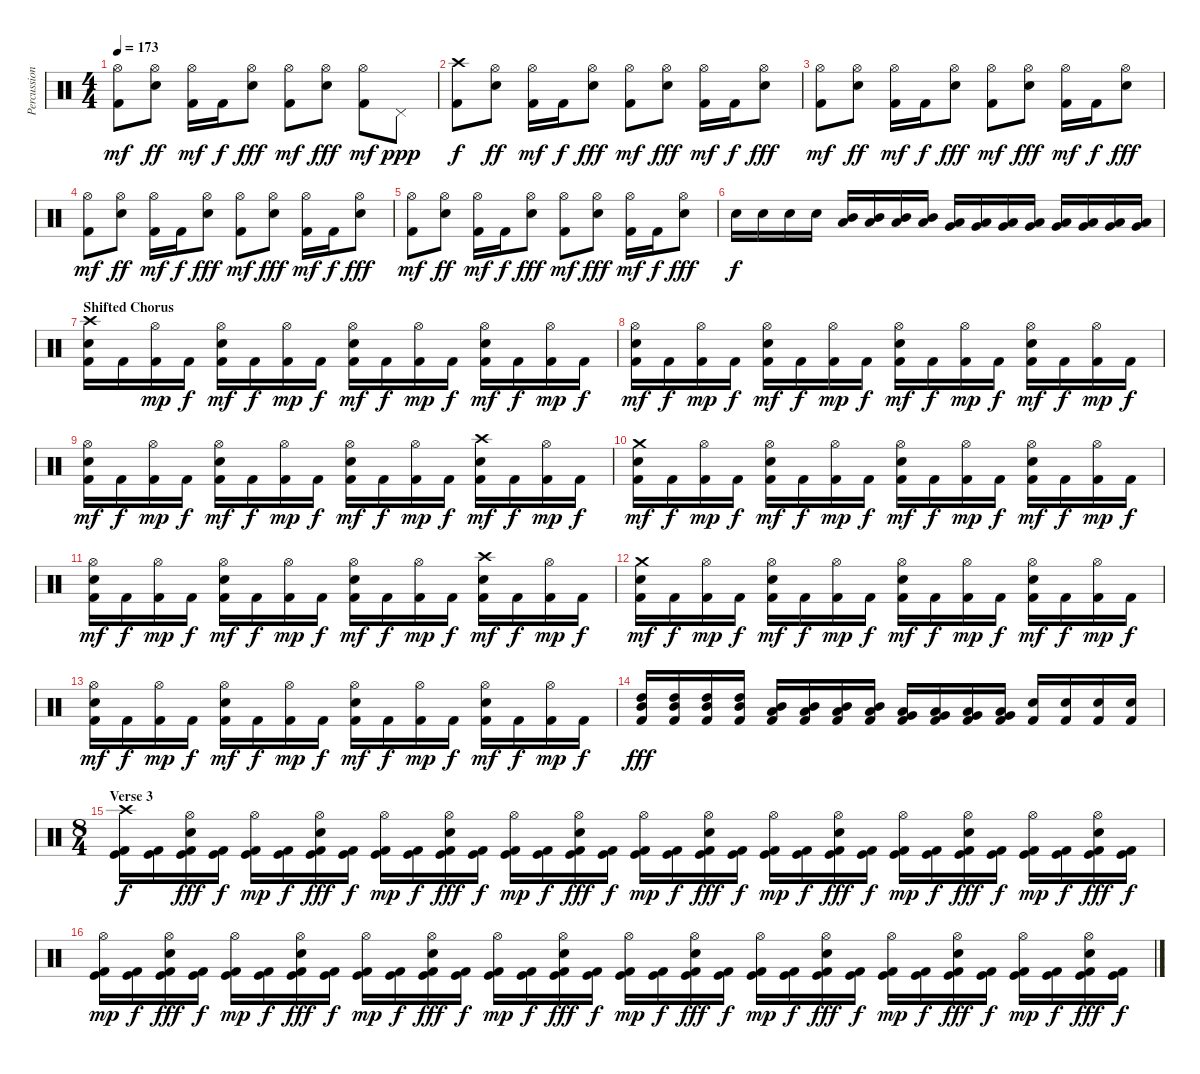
\track ("Percussion" "Percussion") {instrument percussion}
\staff {score}
\articulation defaults
\ts (4 4)
\tempo 173
\clef neutral
\ks c
("Hi-Hat (open)" "Kick (hit) 2").8{dy mf} ("Hi-Hat (open)" "Snare (hit) 2").8{dy ff} ("Hi-Hat (open)" "Kick (hit) 2").16{dy mf} "Kick (hit) 2".16{dy f} ("Hi-Hat (open)" "Snare (hit) 2").8{dy fff} ("Hi-Hat (open)" "Kick (hit) 2").8{dy mf} ("Hi-Hat (open)" "Snare (hit) 2").8{dy fff} ("Hi-Hat (open)" "Kick (hit) 2").8{dy mf} "Pedal Hi-Hat (hit)".8{dy ppp} |
("Crash high (hit)" "Kick (hit) 2").8{dy f} ("Hi-Hat (open)" "Snare (hit) 2").8{dy ff} ("Hi-Hat (open)" "Kick (hit) 2").16{dy mf} "Kick (hit) 2".16{dy f} ("Hi-Hat (open)" "Snare (hit) 2").8{dy fff} ("Hi-Hat (open)" "Kick (hit) 2").8{dy mf} ("Hi-Hat (open)" "Snare (hit) 2").8{dy fff} ("Hi-Hat (open)" "Kick (hit) 2").16{dy mf} "Kick (hit) 2".16{dy f} ("Hi-Hat (open)" "Snare (hit) 2").8{dy fff} |
("Hi-Hat (open)" "Kick (hit) 2").8{dy mf} ("Hi-Hat (open)" "Snare (hit) 2").8{dy ff} ("Hi-Hat (open)" "Kick (hit) 2").16{dy mf} "Kick (hit) 2".16{dy f} ("Hi-Hat (open)" "Snare (hit) 2").8{dy fff} ("Hi-Hat (open)" "Kick (hit) 2").8{dy mf} ("Hi-Hat (open)" "Snare (hit) 2").8{dy fff} ("Hi-Hat (open)" "Kick (hit) 2").16{dy mf} "Kick (hit) 2".16{dy f} ("Hi-Hat (open)" "Snare (hit) 2").8{dy fff} |
("Hi-Hat (open)" "Kick (hit) 2").8{dy mf} ("Hi-Hat (open)" "Snare (hit) 2").8{dy ff} ("Hi-Hat (open)" "Kick (hit) 2").16{dy mf} "Kick (hit) 2".16{dy f} ("Hi-Hat (open)" "Snare (hit) 2").8{dy fff} ("Hi-Hat (open)" "Kick (hit) 2").8{dy mf} ("Hi-Hat (open)" "Snare (hit) 2").8{dy fff} ("Hi-Hat (open)" "Kick (hit) 2").16{dy mf} "Kick (hit) 2".16{dy f} ("Hi-Hat (open)" "Snare (hit) 2").8{dy fff} |
("Hi-Hat (open)" "Kick (hit) 2").8{dy mf} ("Hi-Hat (open)" "Snare (hit) 2").8{dy ff} ("Hi-Hat (open)" "Kick (hit) 2").16{dy mf} "Kick (hit) 2".16{dy f} ("Hi-Hat (open)" "Snare (hit) 2").8{dy fff} ("Hi-Hat (open)" "Kick (hit) 2").8{dy mf} ("Hi-Hat (open)" "Snare (hit) 2").8{dy fff} ("Hi-Hat (open)" "Kick (hit) 2").16{dy mf} "Kick (hit) 2".16{dy f} ("Hi-Hat (open)" "Snare (hit) 2").8{dy fff} |
"Snare (hit) 2".16{dy f} "Snare (hit) 2".16 "Snare (hit) 2".16 "Snare (hit) 2".16 ("Low Tom (hit)" "Mid Tom (hit)").16 ("Low Tom (hit)" "Mid Tom (hit)").16 ("Low Tom (hit)" "Mid Tom (hit)").16 ("Low Tom (hit)" "Mid Tom (hit)").16 ("Very Low Tom (hit)" "Low Tom (hit)").16 ("Very Low Tom (hit)" "Low Tom (hit)").16 ("Very Low Tom (hit)" "Low Tom (hit)").16 ("Very Low Tom (hit)" "Low Tom (hit)").16 ("Low Floor Tom (hit)" "Very Low Tom (hit)").16 ("Low Floor Tom (hit)" "Very Low Tom (hit)").16 ("Low Floor Tom (hit)" "Very Low Tom (hit)").16 ("Low Floor Tom (hit)" "Very Low Tom (hit)").16 |
\section ("" "Shifted Chorus")
("Crash high (hit)" "Snare (hit) 2" "Kick (hit) 2").16 "Kick (hit) 2".16 ("Hi-Hat (open)" "Kick (hit) 2").16{dy mp} "Kick (hit) 2".16{dy f} ("Hi-Hat (open)" "Snare (hit) 2" "Kick (hit) 2").16{dy mf} "Kick (hit) 2".16{dy f} ("Hi-Hat (open)" "Kick (hit) 2").16{dy mp} "Kick (hit) 2".16{dy f} ("Hi-Hat (open)" "Snare (hit) 2" "Kick (hit) 2").16{dy mf} "Kick (hit) 2".16{dy f} ("Hi-Hat (open)" "Kick (hit) 2").16{dy mp} "Kick (hit) 2".16{dy f} ("Hi-Hat (open)" "Snare (hit) 2" "Kick (hit) 2").16{dy mf} "Kick (hit) 2".16{dy f} ("Hi-Hat (open)" "Kick (hit) 2").16{dy mp} "Kick (hit) 2".16{dy f} |
("Hi-Hat (open)" "Snare (hit) 2" "Kick (hit) 2").16{dy mf} "Kick (hit) 2".16{dy f} ("Hi-Hat (open)" "Kick (hit) 2").16{dy mp} "Kick (hit) 2".16{dy f} ("Hi-Hat (open)" "Snare (hit) 2" "Kick (hit) 2").16{dy mf} "Kick (hit) 2".16{dy f} ("Hi-Hat (open)" "Kick (hit) 2").16{dy mp} "Kick (hit) 2".16{dy f} ("Hi-Hat (open)" "Snare (hit) 2" "Kick (hit) 2").16{dy mf} "Kick (hit) 2".16{dy f} ("Hi-Hat (open)" "Kick (hit) 2").16{dy mp} "Kick (hit) 2".16{dy f} ("Hi-Hat (open)" "Snare (hit) 2" "Kick (hit) 2").16{dy mf} "Kick (hit) 2".16{dy f} ("Hi-Hat (open)" "Kick (hit) 2").16{dy mp} "Kick (hit) 2".16{dy f} |
("Hi-Hat (open)" "Snare (hit) 2" "Kick (hit) 2").16{dy mf} "Kick (hit) 2".16{dy f} ("Hi-Hat (open)" "Kick (hit) 2").16{dy mp} "Kick (hit) 2".16{dy f} ("Hi-Hat (open)" "Snare (hit) 2" "Kick (hit) 2").16{dy mf} "Kick (hit) 2".16{dy f} ("Hi-Hat (open)" "Kick (hit) 2").16{dy mp} "Kick (hit) 2".16{dy f} ("Hi-Hat (open)" "Snare (hit) 2" "Kick (hit) 2").16{dy mf} "Kick (hit) 2".16{dy f} ("Hi-Hat (open)" "Kick (hit) 2").16{dy mp} "Kick (hit) 2".16{dy f} ("Crash high (hit)" "Snare (hit) 2" "Kick (hit) 2").16{dy mf} "Kick (hit) 2".16{dy f} ("Hi-Hat (open)" "Kick (hit) 2").16{dy mp} "Kick (hit) 2".16{dy f} |
("Crash medium (hit)" "Snare (hit) 2" "Kick (hit) 2").16{dy mf} "Kick (hit) 2".16{dy f} ("Hi-Hat (open)" "Kick (hit) 2").16{dy mp} "Kick (hit) 2".16{dy f} ("Hi-Hat (open)" "Snare (hit) 2" "Kick (hit) 2").16{dy mf} "Kick (hit) 2".16{dy f} ("Hi-Hat (open)" "Kick (hit) 2").16{dy mp} "Kick (hit) 2".16{dy f} ("Hi-Hat (open)" "Snare (hit) 2" "Kick (hit) 2").16{dy mf} "Kick (hit) 2".16{dy f} ("Hi-Hat (open)" "Kick (hit) 2").16{dy mp} "Kick (hit) 2".16{dy f} ("Hi-Hat (open)" "Snare (hit) 2" "Kick (hit) 2").16{dy mf} "Kick (hit) 2".16{dy f} ("Hi-Hat (open)" "Kick (hit) 2").16{dy mp} "Kick (hit) 2".16{dy f} |
("Hi-Hat (open)" "Snare (hit) 2" "Kick (hit) 2").16{dy mf} "Kick (hit) 2".16{dy f} ("Hi-Hat (open)" "Kick (hit) 2").16{dy mp} "Kick (hit) 2".16{dy f} ("Hi-Hat (open)" "Snare (hit) 2" "Kick (hit) 2").16{dy mf} "Kick (hit) 2".16{dy f} ("Hi-Hat (open)" "Kick (hit) 2").16{dy mp} "Kick (hit) 2".16{dy f} ("Hi-Hat (open)" "Snare (hit) 2" "Kick (hit) 2").16{dy mf} "Kick (hit) 2".16{dy f} ("Hi-Hat (open)" "Kick (hit) 2").16{dy mp} "Kick (hit) 2".16{dy f} ("Crash high (hit)" "Snare (hit) 2" "Kick (hit) 2").16{dy mf} "Kick (hit) 2".16{dy f} ("Hi-Hat (open)" "Kick (hit) 2").16{dy mp} "Kick (hit) 2".16{dy f} |
("Crash medium (hit)" "Snare (hit) 2" "Kick (hit) 2").16{dy mf} "Kick (hit) 2".16{dy f} ("Hi-Hat (open)" "Kick (hit) 2").16{dy mp} "Kick (hit) 2".16{dy f} ("Hi-Hat (open)" "Snare (hit) 2" "Kick (hit) 2").16{dy mf} "Kick (hit) 2".16{dy f} ("Hi-Hat (open)" "Kick (hit) 2").16{dy mp} "Kick (hit) 2".16{dy f} ("Hi-Hat (open)" "Snare (hit) 2" "Kick (hit) 2").16{dy mf} "Kick (hit) 2".16{dy f} ("Hi-Hat (open)" "Kick (hit) 2").16{dy mp} "Kick (hit) 2".16{dy f} ("Hi-Hat (open)" "Snare (hit) 2" "Kick (hit) 2").16{dy mf} "Kick (hit) 2".16{dy f} ("Hi-Hat (open)" "Kick (hit) 2").16{dy mp} "Kick (hit) 2".16{dy f} |
("Hi-Hat (open)" "Snare (hit) 2" "Kick (hit) 2").16{dy mf} "Kick (hit) 2".16{dy f} ("Hi-Hat (open)" "Kick (hit) 2").16{dy mp} "Kick (hit) 2".16{dy f} ("Hi-Hat (open)" "Snare (hit) 2" "Kick (hit) 2").16{dy mf} "Kick (hit) 2".16{dy f} ("Hi-Hat (open)" "Kick (hit) 2").16{dy mp} "Kick (hit) 2".16{dy f} ("Hi-Hat (open)" "Snare (hit) 2" "Kick (hit) 2").16{dy mf} "Kick (hit) 2".16{dy f} ("Hi-Hat (open)" "Kick (hit) 2").16{dy mp} "Kick (hit) 2".16{dy f} ("Hi-Hat (open)" "Snare (hit) 2" "Kick (hit) 2").16{dy mf} "Kick (hit) 2".16{dy f} ("Hi-Hat (open)" "Kick (hit) 2").16{dy mp} "Kick (hit) 2".16{dy f} |
("High Tom (hit)" "Mid Tom (hit)" "Kick (hit) 2").16{dy fff} ("High Tom (hit)" "Mid Tom (hit)" "Kick (hit) 2").16 ("High Tom (hit)" "Mid Tom (hit)" "Kick (hit) 2").16 ("High Tom (hit)" "Mid Tom (hit)" "Kick (hit) 2").16 ("Mid Tom (hit)" "Low Tom (hit)" "Kick (hit) 2").16 ("Mid Tom (hit)" "Low Tom (hit)" "Kick (hit) 2").16 ("Mid Tom (hit)" "Low Tom (hit)" "Kick (hit) 2").16 ("Mid Tom (hit)" "Low Tom (hit)" "Kick (hit) 2").16 ("Low Tom (hit)" "Very Low Tom (hit)" "Kick (hit) 2").16 ("Low Tom (hit)" "Very Low Tom (hit)" "Kick (hit) 2").16 ("Low Tom (hit)" "Very Low Tom (hit)" "Kick (hit) 2").16 ("Low Tom (hit)" "Very Low Tom (hit)" "Kick (hit) 2").16 ("Snare (hit) 2" "Kick (hit) 2").16 ("Snare (hit) 2" "Kick (hit) 2").16 ("Snare (hit) 2" "Kick (hit) 2").16 ("Snare (hit) 2" "Kick (hit) 2").16 |
\ts (8 4)
\section ("" "Verse 3")
("Crash high (hit)" "Kick (hit)" "Kick (hit) 2").16{dy f} ("Kick (hit)" "Kick (hit) 2").16 ("Hi-Hat (open)" "Snare (hit) 2" "Kick (hit)" "Kick (hit) 2").16{dy fff} ("Kick (hit)" "Kick (hit) 2").16{dy f} ("Hi-Hat (open)" "Kick (hit)" "Kick (hit) 2").16{dy mp} ("Kick (hit)" "Kick (hit) 2").16{dy f} ("Hi-Hat (open)" "Snare (hit) 2" "Kick (hit)" "Kick (hit) 2").16{dy fff} ("Kick (hit)" "Kick (hit) 2").16{dy f} ("Hi-Hat (open)" "Kick (hit)" "Kick (hit) 2").16{dy mp} ("Kick (hit)" "Kick (hit) 2").16{dy f} ("Hi-Hat (open)" "Snare (hit) 2" "Kick (hit)" "Kick (hit) 2").16{dy fff} ("Kick (hit)" "Kick (hit) 2").16{dy f} ("Hi-Hat (open)" "Kick (hit)" "Kick (hit) 2").16{dy mp} ("Kick (hit)" "Kick (hit) 2").16{dy f} ("Hi-Hat (open)" "Snare (hit) 2" "Kick (hit)" "Kick (hit) 2").16{dy fff} ("Kick (hit)" "Kick (hit) 2").16{dy f} ("Hi-Hat (open)" "Kick (hit)" "Kick (hit) 2").16{dy mp} ("Kick (hit)" "Kick (hit) 2").16{dy f} ("Hi-Hat (open)" "Snare (hit) 2" "Kick (hit)" "Kick (hit) 2").16{dy fff} ("Kick (hit)" "Kick (hit) 2").16{dy f} ("Hi-Hat (open)" "Kick (hit)" "Kick (hit) 2").16{dy mp} ("Kick (hit)" "Kick (hit) 2").16{dy f} ("Hi-Hat (open)" "Snare (hit) 2" "Kick (hit)" "Kick (hit) 2").16{dy fff} ("Kick (hit)" "Kick (hit) 2").16{dy f} ("Hi-Hat (open)" "Kick (hit)" "Kick (hit) 2").16{dy mp} ("Kick (hit)" "Kick (hit) 2").16{dy f} ("Hi-Hat (open)" "Snare (hit) 2" "Kick (hit)" "Kick (hit) 2").16{dy fff} ("Kick (hit)" "Kick (hit) 2").16{dy f} ("Hi-Hat (open)" "Kick (hit)" "Kick (hit) 2").16{dy mp} ("Kick (hit)" "Kick (hit) 2").16{dy f} ("Hi-Hat (open)" "Snare (hit) 2" "Kick (hit)" "Kick (hit) 2").16{dy fff} ("Kick (hit)" "Kick (hit) 2").16{dy f} |
("Hi-Hat (open)" "Kick (hit)" "Kick (hit) 2").16{dy mp} ("Kick (hit)" "Kick (hit) 2").16{dy f} ("Hi-Hat (open)" "Snare (hit) 2" "Kick (hit)" "Kick (hit) 2").16{dy fff} ("Kick (hit)" "Kick (hit) 2").16{dy f} ("Hi-Hat (open)" "Kick (hit)" "Kick (hit) 2").16{dy mp} ("Kick (hit)" "Kick (hit) 2").16{dy f} ("Hi-Hat (open)" "Snare (hit) 2" "Kick (hit)" "Kick (hit) 2").16{dy fff} ("Kick (hit)" "Kick (hit) 2").16{dy f} ("Hi-Hat (open)" "Kick (hit)" "Kick (hit) 2").16{dy mp} ("Kick (hit)" "Kick (hit) 2").16{dy f} ("Hi-Hat (open)" "Snare (hit) 2" "Kick (hit)" "Kick (hit) 2").16{dy fff} ("Kick (hit)" "Kick (hit) 2").16{dy f} ("Hi-Hat (open)" "Kick (hit)" "Kick (hit) 2").16{dy mp} ("Kick (hit)" "Kick (hit) 2").16{dy f} ("Hi-Hat (open)" "Snare (hit) 2" "Kick (hit)" "Kick (hit) 2").16{dy fff} ("Kick (hit)" "Kick (hit) 2").16{dy f} ("Hi-Hat (open)" "Kick (hit)" "Kick (hit) 2").16{dy mp} ("Kick (hit)" "Kick (hit) 2").16{dy f} ("Hi-Hat (open)" "Snare (hit) 2" "Kick (hit)" "Kick (hit) 2").16{dy fff} ("Kick (hit)" "Kick (hit) 2").16{dy f} ("Hi-Hat (open)" "Kick (hit)" "Kick (hit) 2").16{dy mp} ("Kick (hit)" "Kick (hit) 2").16{dy f} ("Hi-Hat (open)" "Snare (hit) 2" "Kick (hit)" "Kick (hit) 2").16{dy fff} ("Kick (hit)" "Kick (hit) 2").16{dy f} ("Hi-Hat (open)" "Kick (hit)" "Kick (hit) 2").16{dy mp} ("Kick (hit)" "Kick (hit) 2").16{dy f} ("Hi-Hat (open)" "Snare (hit) 2" "Kick (hit)" "Kick (hit) 2").16{dy fff} ("Kick (hit)" "Kick (hit) 2").16{dy f} ("Hi-Hat (open)" "Kick (hit)" "Kick (hit) 2").16{dy mp} ("Kick (hit)" "Kick (hit) 2").16{dy f} ("Hi-Hat (open)" "Snare (hit) 2" "Kick (hit)" "Kick (hit) 2").16{dy fff} ("Kick (hit)" "Kick (hit) 2").16{dy f}
